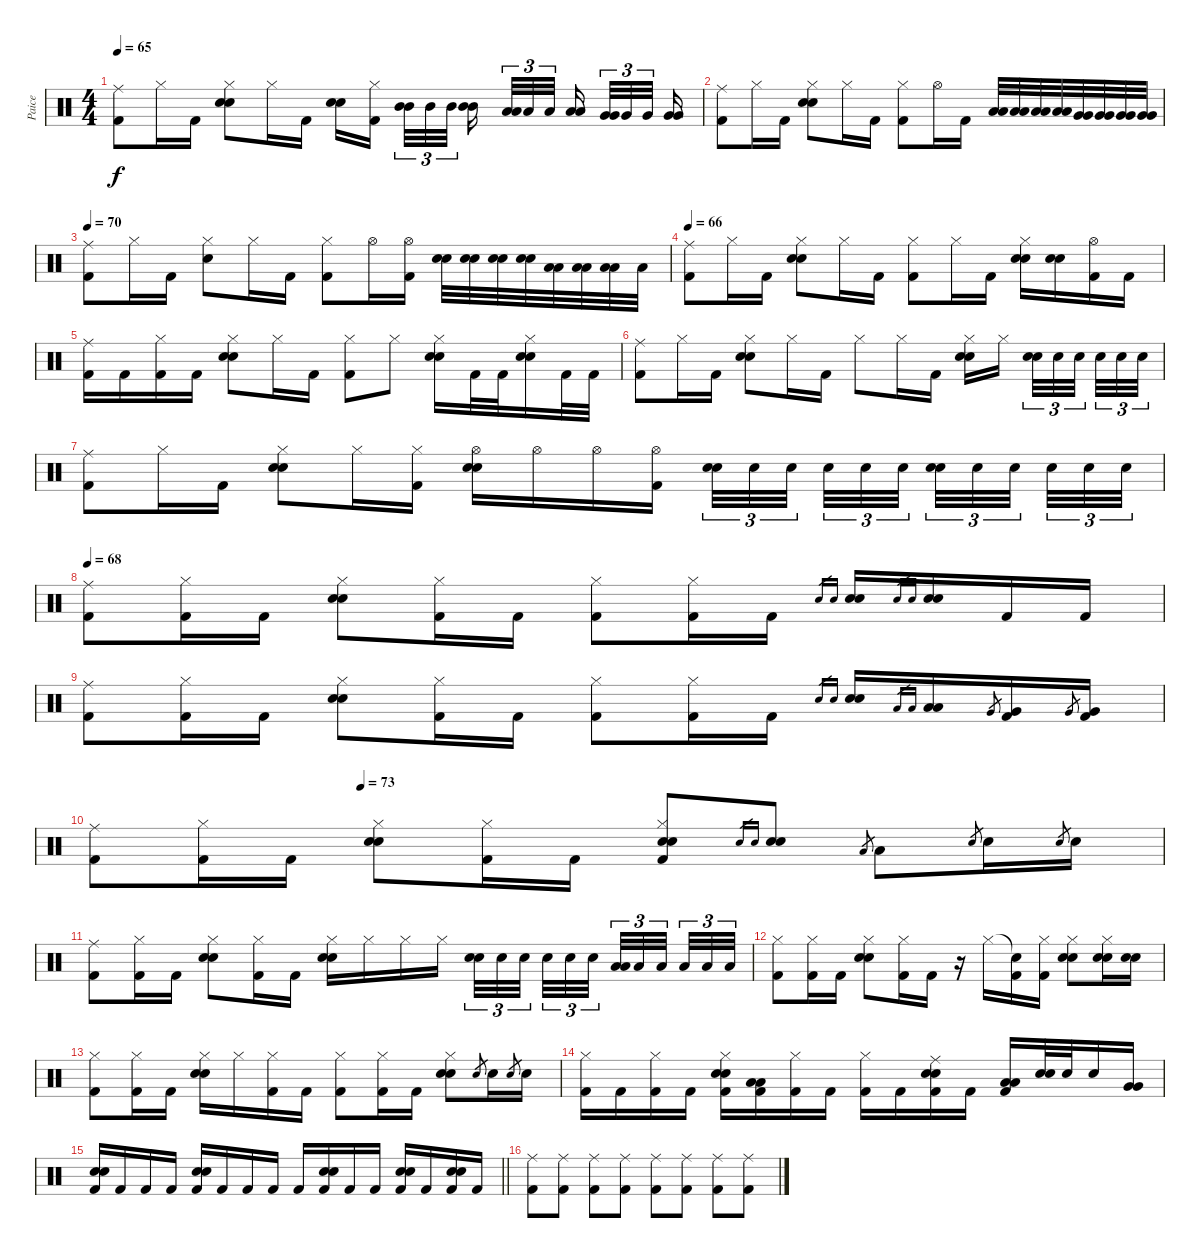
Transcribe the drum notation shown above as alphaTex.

\track ("Paice" "Paice") {instrument percussion}
\staff {score}
\articulation defaults
\ts (4 4)
\tempo 65
\clef neutral
\ks c
("Ride (middle)" "Kick (hit) 2").8{dy f} "Hi-Hat (closed)".16 "Kick (hit) 2".16 ("Hi-Hat (closed)" "Electric Snare (hit)" "Electric Snare (hit)").8 "Hi-Hat (closed)".16 "Kick (hit) 2".16 ("Electric Snare (hit)" "Electric Snare (hit)").16 ("Hi-Hat (closed)" "Kick (hit) 2").16{beam splitsecondary} ("Mid Tom (hit)" "Mid Tom (hit)").32{tu (3 2)} "Mid Tom (hit)".32{tu (3 2)} "Mid Tom (hit)".32{tu (3 2) beam splitsecondary} ("Mid Tom (hit)" "Mid Tom (hit)").16 ("Low Tom (hit)" "Low Tom (hit)").32{tu (3 2)} "Low Tom (hit)".32{tu (3 2)} "Low Tom (hit)".32{tu (3 2) beam splitsecondary} ("Low Tom (hit)" "Low Tom (hit)").16{beam splitsecondary} ("Very Low Tom (hit)" "Very Low Tom (hit)").32{tu (3 2)} "Very Low Tom (hit)".32{tu (3 2)} "Very Low Tom (hit)".32{tu (3 2) beam splitsecondary} ("Very Low Tom (hit)" "Very Low Tom (hit)").16 |
("Ride (middle)" "Kick (hit) 2").8 "Hi-Hat (closed)".16 "Kick (hit) 2".16 ("Hi-Hat (closed)" "Electric Snare (hit)" "Electric Snare (hit)").8 "Hi-Hat (closed)".16 "Kick (hit) 2".16 ("Hi-Hat (closed)" "Kick (hit) 2").8 "Hi-Hat (open)".16 "Kick (hit) 2".16 ("Low Tom (hit)" "Low Tom (hit)").32 ("Low Tom (hit)" "Low Tom (hit)").32 ("Low Tom (hit)" "Low Tom (hit)").32 ("Low Tom (hit)" "Low Tom (hit)").32 ("Very Low Tom (hit)" "Very Low Tom (hit)").32 ("Very Low Tom (hit)" "Very Low Tom (hit)").32 ("Very Low Tom (hit)" "Very Low Tom (hit)").32 ("Very Low Tom (hit)" "Very Low Tom (hit)").32 |
\tempo 70
("Ride (middle)" "Kick (hit) 2").8 "Hi-Hat (closed)".16 "Kick (hit) 2".16 ("Hi-Hat (closed)" "Snare (hit) 2").8 "Hi-Hat (closed)".16 "Kick (hit) 2".16 ("Hi-Hat (closed)" "Kick (hit) 2").8 "Hi-Hat (open)".16 ("Hi-Hat (open)" "Kick (hit) 2").16 ("Electric Snare (hit)" "Electric Snare (hit)").32 ("Electric Snare (hit)" "Electric Snare (hit)").32 ("Electric Snare (hit)" "Electric Snare (hit)").32 ("Electric Snare (hit)" "Electric Snare (hit)").32 ("Low Tom (hit)" "Low Tom (hit)").32 ("Low Tom (hit)" "Low Tom (hit)").32 ("Low Tom (hit)" "Low Tom (hit)").32 "Low Tom (hit)".32 |
\tempo 65
\tempo 66
("Ride (middle)" "Kick (hit) 2").8 "Hi-Hat (closed)".16 "Kick (hit) 2".16 ("Hi-Hat (closed)" "Electric Snare (hit)" "Electric Snare (hit)").8 "Hi-Hat (closed)".16 "Kick (hit) 2".16 ("Hi-Hat (closed)" "Kick (hit) 2").8 "Hi-Hat (closed)".16 "Kick (hit) 2".16 ("Hi-Hat (closed)" "Electric Snare (hit)" "Electric Snare (hit)").16 ("Electric Snare (hit)" "Electric Snare (hit)").16 ("Hi-Hat (open)" "Kick (hit) 2").16 "Kick (hit) 2".16 |
("Ride (middle)" "Kick (hit) 2").16 "Kick (hit) 2".16 ("Hi-Hat (closed)" "Kick (hit) 2").16 "Kick (hit) 2".16 ("Hi-Hat (closed)" "Electric Snare (hit)" "Electric Snare (hit)").8 "Hi-Hat (closed)".16 "Kick (hit) 2".16 ("Hi-Hat (closed)" "Kick (hit) 2").8 "Hi-Hat (closed)".8 ("Hi-Hat (closed)" "Electric Snare (hit)" "Electric Snare (hit)").16 "Kick (hit) 2".32 "Kick (hit) 2".32 ("Hi-Hat (closed)" "Electric Snare (hit)" "Electric Snare (hit)").16 "Kick (hit) 2".32 "Kick (hit) 2".32 |
("Ride (middle)" "Kick (hit) 2").8 "Hi-Hat (closed)".16 "Kick (hit) 2".16 ("Hi-Hat (closed)" "Electric Snare (hit)" "Electric Snare (hit)").8 "Hi-Hat (closed)".16 "Kick (hit) 2".16 "Hi-Hat (closed)".8 "Hi-Hat (closed)".16 "Kick (hit) 2".16 ("Hi-Hat (closed)" "Electric Snare (hit)" "Electric Snare (hit)").16 "Hi-Hat (closed)".16{beam splitsecondary} ("Electric Snare (hit)" "Electric Snare (hit)").32{tu (3 2)} "Electric Snare (hit)".32{tu (3 2)} "Electric Snare (hit)".32{tu (3 2) beam splitsecondary} "Electric Snare (hit)".32{tu (3 2)} "Electric Snare (hit)".32{tu (3 2)} "Electric Snare (hit)".32{tu (3 2)} |
("Ride (middle)" "Kick (hit) 2").8 "Hi-Hat (closed)".16 "Kick (hit) 2".16 ("Hi-Hat (closed)" "Electric Snare (hit)" "Electric Snare (hit)").8 "Hi-Hat (closed)".16 ("Hi-Hat (closed)" "Kick (hit) 2").16 ("Hi-Hat (open)" "Electric Snare (hit)" "Electric Snare (hit)").16 "Hi-Hat (open)".16 "Hi-Hat (open)".16 ("Hi-Hat (open)" "Kick (hit) 2").16 ("Electric Snare (hit)" "Electric Snare (hit)").32{tu (3 2)} "Electric Snare (hit)".32{tu (3 2)} "Electric Snare (hit)".32{tu (3 2) beam splitsecondary} "Electric Snare (hit)".32{tu (3 2)} "Electric Snare (hit)".32{tu (3 2)} "Electric Snare (hit)".32{tu (3 2) beam splitsecondary} ("Electric Snare (hit)" "Electric Snare (hit)").32{tu (3 2)} "Electric Snare (hit)".32{tu (3 2)} "Electric Snare (hit)".32{tu (3 2) beam splitsecondary} "Electric Snare (hit)".32{tu (3 2)} "Electric Snare (hit)".32{tu (3 2)} "Electric Snare (hit)".32{tu (3 2)} |
\tempo 70
\tempo 68
("Ride (middle)" "Kick (hit) 2").8 ("Hi-Hat (closed)" "Kick (hit) 2").16 "Kick (hit) 2".16 ("Hi-Hat (closed)" "Electric Snare (hit)" "Electric Snare (hit)").8 ("Hi-Hat (closed)" "Kick (hit) 2").16 "Kick (hit) 2".16 ("Hi-Hat (closed)" "Kick (hit) 2").8 ("Hi-Hat (closed)" "Kick (hit) 2").16 "Kick (hit) 2".16 "Electric Snare (hit)".16{gr} "Electric Snare (hit)".16{gr} ("Electric Snare (hit)" "Electric Snare (hit)").16 "Electric Snare (hit)".16{gr} "Electric Snare (hit)".16{gr} ("Electric Snare (hit)" "Electric Snare (hit)").16 "Kick (hit) 2".16 "Kick (hit) 2".16 |
("Ride (middle)" "Kick (hit) 2").8 ("Hi-Hat (closed)" "Kick (hit) 2").16 "Kick (hit) 2".16 ("Hi-Hat (closed)" "Electric Snare (hit)" "Electric Snare (hit)").8 ("Hi-Hat (closed)" "Kick (hit) 2").16 "Kick (hit) 2".16 ("Hi-Hat (closed)" "Kick (hit) 2").8 ("Hi-Hat (closed)" "Kick (hit) 2").16 "Kick (hit) 2".16 "Electric Snare (hit)".16{gr} "Electric Snare (hit)".16{gr} ("Electric Snare (hit)" "Electric Snare (hit)").16 "Low Tom (hit)".16{gr} "Low Tom (hit)".16{gr} ("Low Tom (hit)" "Low Tom (hit)").16 "Very Low Tom (hit)".8{gr} ("Very Low Tom (hit)" "Kick (hit) 2").16 "Very Low Tom (hit)".8{gr} ("Very Low Tom (hit)" "Kick (hit) 2").16 |
\tempo (73 0.25)
("Ride (middle)" "Kick (hit) 2").8 ("Hi-Hat (closed)" "Kick (hit) 2").16 "Kick (hit) 2".16 ("Hi-Hat (closed)" "Electric Snare (hit)" "Electric Snare (hit)").8 ("Hi-Hat (closed)" "Kick (hit) 2").16 "Kick (hit) 2".16 ("Hi-Hat (closed)" "Electric Snare (hit)" "Electric Snare (hit)" "Kick (hit) 2").8 "Electric Snare (hit)".16{gr} "Electric Snare (hit)".16{gr} ("Electric Snare (hit)" "Electric Snare (hit)").8 "Low Tom (hit)".8{gr} "Low Tom (hit)".8 "Electric Snare (hit)".8{gr} "Electric Snare (hit)".16 "Electric Snare (hit)".8{gr} "Electric Snare (hit)".16 |
("Ride (middle)" "Kick (hit) 2").8 ("Hi-Hat (closed)" "Kick (hit) 2").16 "Kick (hit) 2".16 ("Hi-Hat (closed)" "Electric Snare (hit)" "Electric Snare (hit)").8 ("Hi-Hat (closed)" "Kick (hit) 2").16 "Kick (hit) 2".16 ("Hi-Hat (closed)" "Electric Snare (hit)" "Electric Snare (hit)").16 "Hi-Hat (closed)".16 "Hi-Hat (closed)".16 "Hi-Hat (closed)".16 ("Electric Snare (hit)" "Electric Snare (hit)").32{tu (3 2)} "Electric Snare (hit)".32{tu (3 2)} "Electric Snare (hit)".32{tu (3 2) beam splitsecondary} "Electric Snare (hit)".32{tu (3 2)} "Electric Snare (hit)".32{tu (3 2)} "Electric Snare (hit)".32{tu (3 2) beam splitsecondary} ("Low Tom (hit)" "Low Tom (hit)").32{tu (3 2)} "Low Tom (hit)".32{tu (3 2)} "Low Tom (hit)".32{tu (3 2) beam splitsecondary} "Low Tom (hit)".32{tu (3 2)} "Low Tom (hit)".32{tu (3 2)} "Low Tom (hit)".32{tu (3 2)} |
("Hi-Hat (closed)" "Kick (hit) 2").8 ("Hi-Hat (closed)" "Kick (hit) 2").16 "Kick (hit) 2".16 ("Hi-Hat (closed)" "Electric Snare (hit)" "Electric Snare (hit)").8 ("Hi-Hat (closed)" "Kick (hit) 2").16 "Kick (hit) 2".16 r.16 "Hi-Hat (closed)".16 ("Snare (hit)"{t} "Kick (hit) 2").16 ("Hi-Hat (closed)" "Kick (hit) 2").16 ("Hi-Hat (closed)" "Electric Snare (hit)" "Electric Snare (hit)").8 ("Hi-Hat (closed)" "Electric Snare (hit)" "Electric Snare (hit)").16 ("Electric Snare (hit)" "Electric Snare (hit)").16 |
("Hi-Hat (closed)" "Kick (hit) 2").8 ("Hi-Hat (closed)" "Kick (hit) 2").16 "Kick (hit) 2".16 ("Hi-Hat (closed)" "Electric Snare (hit)" "Electric Snare (hit)").16 "Hi-Hat (closed)".16 ("Hi-Hat (closed)" "Kick (hit) 2").16 "Kick (hit) 2".16 ("Hi-Hat (closed)" "Kick (hit) 2").8 ("Hi-Hat (closed)" "Kick (hit) 2").16 "Kick (hit) 2".16 ("Hi-Hat (closed)" "Electric Snare (hit)" "Electric Snare (hit)").8 "Electric Snare (hit)".8{gr} "Electric Snare (hit)".16 "Electric Snare (hit)".8{gr} "Electric Snare (hit)".16 |
("Hi-Hat (closed)" "Kick (hit) 2").16 "Kick (hit) 2".16 ("Hi-Hat (closed)" "Kick (hit) 2").16 "Kick (hit) 2".16 ("Hi-Hat (closed)" "Electric Snare (hit)" "Electric Snare (hit)" "Kick (hit) 2").16 ("Low Tom (hit)" "Low Tom (hit)" "Kick (hit) 2").16 ("Hi-Hat (closed)" "Kick (hit) 2").16 "Kick (hit) 2".16 ("Hi-Hat (closed)" "Kick (hit) 2").16 "Kick (hit) 2".16 ("Ride (middle)" "Electric Snare (hit)" "Electric Snare (hit)" "Kick (hit) 2").16 "Kick (hit) 2".16 ("Low Tom (hit)" "Low Tom (hit)" "Kick (hit) 2").16 ("Electric Snare (hit)" "Electric Snare (hit)").32 "Electric Snare (hit)".32 "Electric Snare (hit)".16 ("Very Low Tom (hit)" "Very Low Tom (hit)").16 |
\barLineRight lightlight
("Electric Snare (hit)" "Electric Snare (hit)" "Kick (hit) 2").16 "Kick (hit) 2".16 "Kick (hit) 2".16 "Kick (hit) 2".16 ("Electric Snare (hit)" "Electric Snare (hit)" "Kick (hit) 2").16 "Kick (hit) 2".16 "Kick (hit) 2".16 "Kick (hit) 2".16 "Kick (hit) 2".16 ("Electric Snare (hit)" "Electric Snare (hit)" "Kick (hit) 2").16 "Kick (hit) 2".16 "Kick (hit) 2".16 ("Electric Snare (hit)" "Electric Snare (hit)" "Kick (hit) 2").16 "Kick (hit) 2".16 ("Electric Snare (hit)" "Electric Snare (hit)" "Kick (hit) 2").16 "Kick (hit) 2".16 |
("Ride (middle)" "Kick (hit) 2").8 ("Ride (middle)" "Kick (hit) 2").8 ("Ride (middle)" "Kick (hit) 2").8 ("Ride (middle)" "Kick (hit) 2").8 ("Ride (middle)" "Kick (hit) 2").8 ("Ride (middle)" "Kick (hit) 2").8 ("Ride (middle)" "Kick (hit) 2").8 ("Ride (middle)" "Kick (hit) 2").8
